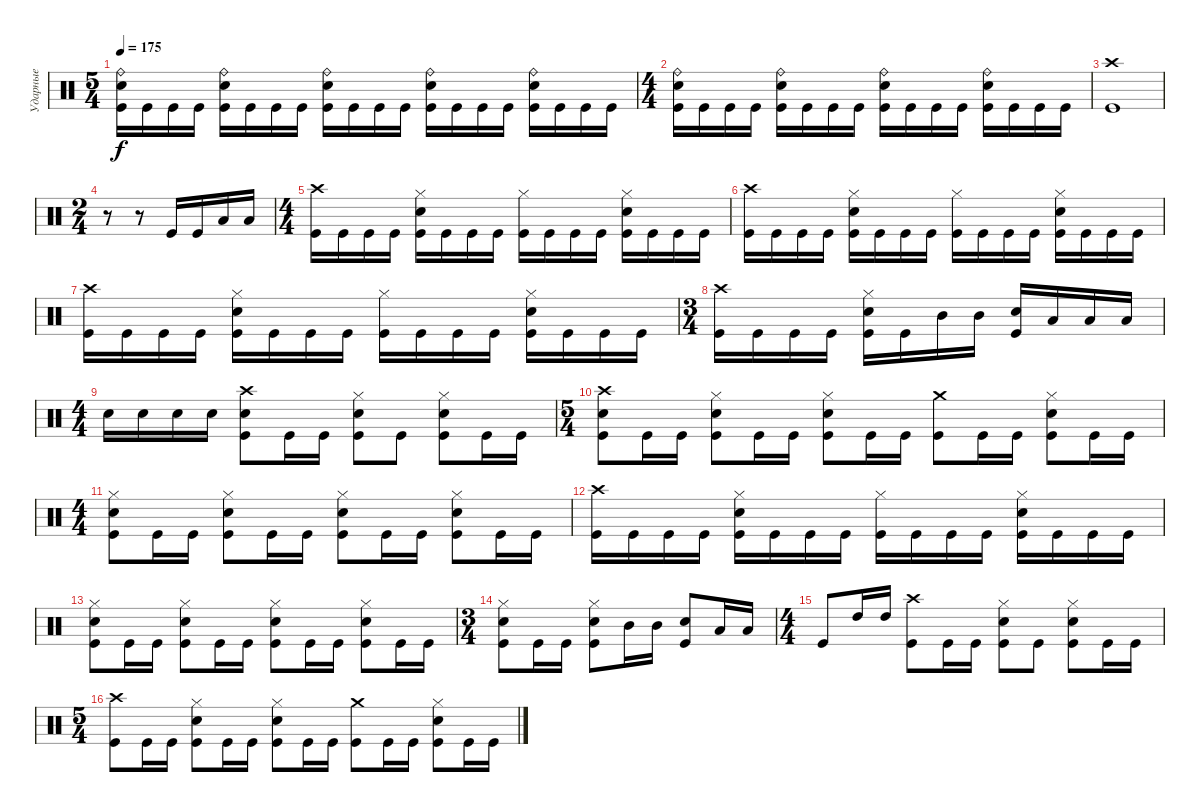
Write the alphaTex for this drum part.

\track ("Ударные" "Ударные") {instrument percussion}
\staff {score}
\articulation defaults
\ts (5 4)
\tempo 175
\clef neutral
\ks c
("Ride (bell)" "Electric Snare (hit)" "Kick (hit)").16{dy f} "Kick (hit)".16 "Kick (hit)".16 "Kick (hit)".16 ("Ride (bell)" "Electric Snare (hit)" "Kick (hit)").16 "Kick (hit)".16 "Kick (hit)".16 "Kick (hit)".16 ("Ride (bell)" "Electric Snare (hit)" "Kick (hit)").16 "Kick (hit)".16 "Kick (hit)".16 "Kick (hit)".16 ("Ride (bell)" "Electric Snare (hit)" "Kick (hit)").16 "Kick (hit)".16 "Kick (hit)".16 "Kick (hit)".16 ("Ride (bell)" "Electric Snare (hit)" "Kick (hit)").16 "Kick (hit)".16 "Kick (hit)".16 "Kick (hit)".16 |
\ts (4 4)
("Ride (bell)" "Electric Snare (hit)" "Kick (hit)").16 "Kick (hit)".16 "Kick (hit)".16 "Kick (hit)".16 ("Ride (bell)" "Electric Snare (hit)" "Kick (hit)").16 "Kick (hit)".16 "Kick (hit)".16 "Kick (hit)".16 ("Ride (bell)" "Electric Snare (hit)" "Kick (hit)").16 "Kick (hit)".16 "Kick (hit)".16 "Kick (hit)".16 ("Ride (bell)" "Electric Snare (hit)" "Kick (hit)").16 "Kick (hit)".16 "Kick (hit)".16 "Kick (hit)".16 |
("Crash high (hit)" "Kick (hit)").1 |
\ts (2 4)
r.8 r.8 "Kick (hit)".16 "Kick (hit)".16 "Low Tom (hit)".16 "Low Tom (hit)".16 |
\ts (4 4)
("Crash high (hit)" "Kick (hit)").16 "Kick (hit)".16 "Kick (hit)".16 "Kick (hit)".16 ("Hi-Hat (closed)" "Electric Snare (hit)" "Kick (hit)").16 "Kick (hit)".16 "Kick (hit)".16 "Kick (hit)".16 ("Hi-Hat (closed)" "Kick (hit)").16 "Kick (hit)".16 "Kick (hit)".16 "Kick (hit)".16 ("Hi-Hat (closed)" "Electric Snare (hit)" "Kick (hit)").16 "Kick (hit)".16 "Kick (hit)".16 "Kick (hit)".16 |
("Crash high (hit)" "Kick (hit)").16 "Kick (hit)".16 "Kick (hit)".16 "Kick (hit)".16 ("Hi-Hat (closed)" "Electric Snare (hit)" "Kick (hit)").16 "Kick (hit)".16 "Kick (hit)".16 "Kick (hit)".16 ("Hi-Hat (closed)" "Kick (hit)").16 "Kick (hit)".16 "Kick (hit)".16 "Kick (hit)".16 ("Hi-Hat (closed)" "Electric Snare (hit)" "Kick (hit)").16 "Kick (hit)".16 "Kick (hit)".16 "Kick (hit)".16 |
("Crash high (hit)" "Kick (hit)").16 "Kick (hit)".16 "Kick (hit)".16 "Kick (hit)".16 ("Hi-Hat (closed)" "Electric Snare (hit)" "Kick (hit)").16 "Kick (hit)".16 "Kick (hit)".16 "Kick (hit)".16 ("Hi-Hat (closed)" "Kick (hit)").16 "Kick (hit)".16 "Kick (hit)".16 "Kick (hit)".16 ("Hi-Hat (closed)" "Electric Snare (hit)" "Kick (hit)").16 "Kick (hit)".16 "Kick (hit)".16 "Kick (hit)".16 |
\ts (3 4)
("Crash high (hit)" "Kick (hit)").16 "Kick (hit)".16 "Kick (hit)".16 "Kick (hit)".16 ("Hi-Hat (closed)" "Electric Snare (hit)" "Kick (hit)").16 "Kick (hit)".16 "Mid Tom (hit)".16 "Mid Tom (hit)".16 ("Electric Snare (hit)" "Kick (hit)").16 "Low Tom (hit)".16 "Low Tom (hit)".16 "Low Tom (hit)".16 |
\ts (4 4)
"Electric Snare (hit)".16 "Electric Snare (hit)".16 "Electric Snare (hit)".16 "Electric Snare (hit)".16 ("Crash high (hit)" "Electric Snare (hit)" "Kick (hit)").8 "Kick (hit)".16 "Kick (hit)".16 ("Hi-Hat (closed)" "Electric Snare (hit)" "Kick (hit)").8 "Kick (hit)".8 ("Hi-Hat (closed)" "Electric Snare (hit)" "Kick (hit)").8 "Kick (hit)".16 "Kick (hit)".16 |
\ts (5 4)
("Crash high (hit)" "Electric Snare (hit)" "Kick (hit)").8 "Kick (hit)".16 "Kick (hit)".16 ("Hi-Hat (closed)" "Electric Snare (hit)" "Kick (hit)").8 "Kick (hit)".16 "Kick (hit)".16 ("Hi-Hat (closed)" "Electric Snare (hit)" "Kick (hit)").8 "Kick (hit)".16 "Kick (hit)".16 ("Crash medium (hit)" "Kick (hit)").8 "Kick (hit)".16 "Kick (hit)".16 ("Hi-Hat (closed)" "Electric Snare (hit)" "Kick (hit)").8 "Kick (hit)".16 "Kick (hit)".16 |
\ts (4 4)
("Hi-Hat (closed)" "Electric Snare (hit)" "Kick (hit)").8 "Kick (hit)".16 "Kick (hit)".16 ("Hi-Hat (closed)" "Electric Snare (hit)" "Kick (hit)").8 "Kick (hit)".16 "Kick (hit)".16 ("Hi-Hat (closed)" "Electric Snare (hit)" "Kick (hit)").8 "Kick (hit)".16 "Kick (hit)".16 ("Hi-Hat (closed)" "Electric Snare (hit)" "Kick (hit)").8 "Kick (hit)".16 "Kick (hit)".16 |
("Crash high (hit)" "Kick (hit)").16 "Kick (hit)".16 "Kick (hit)".16 "Kick (hit)".16 ("Hi-Hat (closed)" "Electric Snare (hit)" "Kick (hit)").16 "Kick (hit)".16 "Kick (hit)".16 "Kick (hit)".16 ("Hi-Hat (closed)" "Kick (hit)").16 "Kick (hit)".16 "Kick (hit)".16 "Kick (hit)".16 ("Hi-Hat (closed)" "Electric Snare (hit)" "Kick (hit)").16 "Kick (hit)".16 "Kick (hit)".16 "Kick (hit)".16 |
("Hi-Hat (closed)" "Electric Snare (hit)" "Kick (hit)").8 "Kick (hit)".16 "Kick (hit)".16 ("Hi-Hat (closed)" "Electric Snare (hit)" "Kick (hit)").8 "Kick (hit)".16 "Kick (hit)".16 ("Hi-Hat (closed)" "Electric Snare (hit)" "Kick (hit)").8 "Kick (hit)".16 "Kick (hit)".16 ("Hi-Hat (closed)" "Electric Snare (hit)" "Kick (hit)").8 "Kick (hit)".16 "Kick (hit)".16 |
\ts (3 4)
("Hi-Hat (closed)" "Electric Snare (hit)" "Kick (hit)").8 "Kick (hit)".16 "Kick (hit)".16 ("Hi-Hat (closed)" "Electric Snare (hit)" "Kick (hit)").8 "Mid Tom (hit)".16 "Mid Tom (hit)".16 ("Electric Snare (hit)" "Kick (hit)").8 "Low Tom (hit)".16 "Low Tom (hit)".16 |
\ts (4 4)
"Kick (hit)".8 "High Tom (hit)".16 "High Tom (hit)".16 ("Crash high (hit)" "Kick (hit)").8 "Kick (hit)".16 "Kick (hit)".16 ("Hi-Hat (closed)" "Electric Snare (hit)" "Kick (hit)").8 "Kick (hit)".8 ("Hi-Hat (closed)" "Electric Snare (hit)" "Kick (hit)").8 "Kick (hit)".16 "Kick (hit)".16 |
\ts (5 4)
("Crash high (hit)" "Kick (hit)").8 "Kick (hit)".16 "Kick (hit)".16 ("Hi-Hat (closed)" "Electric Snare (hit)" "Kick (hit)").8 "Kick (hit)".16 "Kick (hit)".16 ("Hi-Hat (closed)" "Electric Snare (hit)" "Kick (hit)").8 "Kick (hit)".16 "Kick (hit)".16 ("Crash medium (hit)" "Kick (hit)").8 "Kick (hit)".16 "Kick (hit)".16 ("Hi-Hat (closed)" "Electric Snare (hit)" "Kick (hit)").8 "Kick (hit)".16 "Kick (hit)".16
